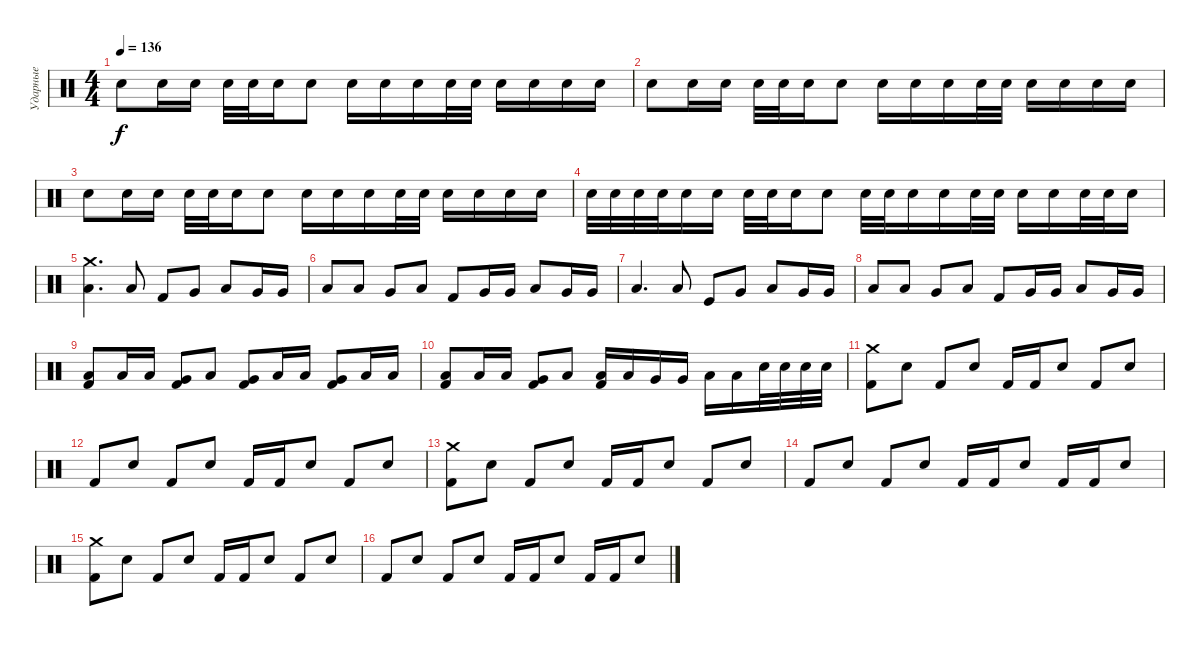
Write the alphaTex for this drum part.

\track ("Ударные" "Ударные") {instrument percussion}
\staff {score}
\articulation defaults
\ts (4 4)
\tempo 136
\clef neutral
\ks c "Electric Snare (hit)".8{dy f} "Electric Snare (hit)".16 "Electric Snare (hit)".16 "Electric Snare (hit)".32 "Electric Snare (hit)".32 "Electric Snare (hit)".16 "Electric Snare (hit)".8 "Electric Snare (hit)".16 "Electric Snare (hit)".16 "Electric Snare (hit)".16 "Electric Snare (hit)".32 "Electric Snare (hit)".32 "Electric Snare (hit)".16 "Electric Snare (hit)".16 "Electric Snare (hit)".16 "Electric Snare (hit)".16
|
"Electric Snare (hit)".8 "Electric Snare (hit)".16 "Electric Snare (hit)".16 "Electric Snare (hit)".32 "Electric Snare (hit)".32 "Electric Snare (hit)".16 "Electric Snare (hit)".8 "Electric Snare (hit)".16 "Electric Snare (hit)".16 "Electric Snare (hit)".16 "Electric Snare (hit)".32 "Electric Snare (hit)".32 "Electric Snare (hit)".16 "Electric Snare (hit)".16 "Electric Snare (hit)".16 "Electric Snare (hit)".16 |
"Electric Snare (hit)".8 "Electric Snare (hit)".16 "Electric Snare (hit)".16 "Electric Snare (hit)".32 "Electric Snare (hit)".32 "Electric Snare (hit)".16 "Electric Snare (hit)".8 "Electric Snare (hit)".16 "Electric Snare (hit)".16 "Electric Snare (hit)".16 "Electric Snare (hit)".32 "Electric Snare (hit)".32 "Electric Snare (hit)".16 "Electric Snare (hit)".16 "Electric Snare (hit)".16 "Electric Snare (hit)".16 |
"Electric Snare (hit)".32 "Electric Snare (hit)".32 "Electric Snare (hit)".32 "Electric Snare (hit)".32 "Electric Snare (hit)".16 "Electric Snare (hit)".16 "Electric Snare (hit)".32 "Electric Snare (hit)".32 "Electric Snare (hit)".16 "Electric Snare (hit)".8 "Electric Snare (hit)".32 "Electric Snare (hit)".32 "Electric Snare (hit)".16 "Electric Snare (hit)".16 "Electric Snare (hit)".32 "Electric Snare (hit)".32 "Electric Snare (hit)".16 "Electric Snare (hit)".16 "Electric Snare (hit)".32 "Electric Snare (hit)".32 "Electric Snare (hit)".16 |
("Crash medium (hit)" "Low Tom (hit)").4{d} "Low Tom (hit)".8 "Kick (hit) 2".8 "Very Low Tom (hit)".8 "Low Tom (hit)".8 "Very Low Tom (hit)".16 "Very Low Tom (hit)".16 |
"Low Tom (hit)".8 "Low Tom (hit)".8 "Very Low Tom (hit)".8 "Low Tom (hit)".8 "Kick (hit) 2".8 "Very Low Tom (hit)".16 "Very Low Tom (hit)".16 "Low Tom (hit)".8 "Very Low Tom (hit)".16 "Very Low Tom (hit)".16 |
"Low Tom (hit)".4{d} "Low Tom (hit)".8 "Kick (hit)".8 "Very Low Tom (hit)".8 "Low Tom (hit)".8 "Very Low Tom (hit)".16 "Very Low Tom (hit)".16 |
"Low Tom (hit)".8 "Low Tom (hit)".8 "Very Low Tom (hit)".8 "Low Tom (hit)".8 "Kick (hit) 2".8 "Very Low Tom (hit)".16 "Very Low Tom (hit)".16 "Low Tom (hit)".8 "Very Low Tom (hit)".16 "Very Low Tom (hit)".16 |
("Low Tom (hit)" "Kick (hit) 2").8 "Low Tom (hit)".16 "Low Tom (hit)".16 ("Very Low Tom (hit)" "Kick (hit) 2").8 "Low Tom (hit)".8 ("Very Low Tom (hit)" "Kick (hit) 2").8 "Low Tom (hit)".16 "Low Tom (hit)".16 ("Very Low Tom (hit)" "Kick (hit) 2").8 "Low Tom (hit)".16 "Low Tom (hit)".16 |
("Low Tom (hit)" "Kick (hit) 2").8 "Low Tom (hit)".16 "Low Tom (hit)".16 ("Very Low Tom (hit)" "Kick (hit) 2").8 "Low Tom (hit)".8 ("Low Tom (hit)" "Kick (hit) 2").16 "Low Tom (hit)".16 "Very Low Tom (hit)".16 "Very Low Tom (hit)".16 "Low Floor Tom (hit)".16 "Low Floor Tom (hit)".16 "Electric Snare (hit)".32 "Electric Snare (hit)".32 "Electric Snare (hit)".32 "Electric Snare (hit)".32 |
("Crash medium (hit)" "Kick (hit) 2").8 "Electric Snare (hit)".8 "Kick (hit) 2".8 "Electric Snare (hit)".8 "Kick (hit) 2".16 "Kick (hit) 2".16 "Electric Snare (hit)".8 "Kick (hit) 2".8 "Electric Snare (hit)".8 |
"Kick (hit) 2".8 "Electric Snare (hit)".8 "Kick (hit) 2".8 "Electric Snare (hit)".8 "Kick (hit) 2".16 "Kick (hit) 2".16 "Electric Snare (hit)".8 "Kick (hit) 2".8 "Electric Snare (hit)".8 |
("Crash medium (hit)" "Kick (hit) 2").8 "Electric Snare (hit)".8 "Kick (hit) 2".8 "Electric Snare (hit)".8 "Kick (hit) 2".16 "Kick (hit) 2".16 "Electric Snare (hit)".8 "Kick (hit) 2".8 "Electric Snare (hit)".8 |
"Kick (hit) 2".8 "Electric Snare (hit)".8 "Kick (hit) 2".8 "Electric Snare (hit)".8 "Kick (hit) 2".16 "Kick (hit) 2".16 "Electric Snare (hit)".8 "Kick (hit) 2".16 "Kick (hit) 2".16 "Electric Snare (hit)".8 |
("Crash medium (hit)" "Kick (hit) 2").8 "Electric Snare (hit)".8 "Kick (hit) 2".8 "Electric Snare (hit)".8 "Kick (hit) 2".16 "Kick (hit) 2".16 "Electric Snare (hit)".8 "Kick (hit) 2".8 "Electric Snare (hit)".8 |
"Kick (hit) 2".8 "Electric Snare (hit)".8 "Kick (hit) 2".8 "Electric Snare (hit)".8 "Kick (hit) 2".16 "Kick (hit) 2".16 "Electric Snare (hit)".8 "Kick (hit) 2".16 "Kick (hit) 2".16 "Electric Snare (hit)".8
